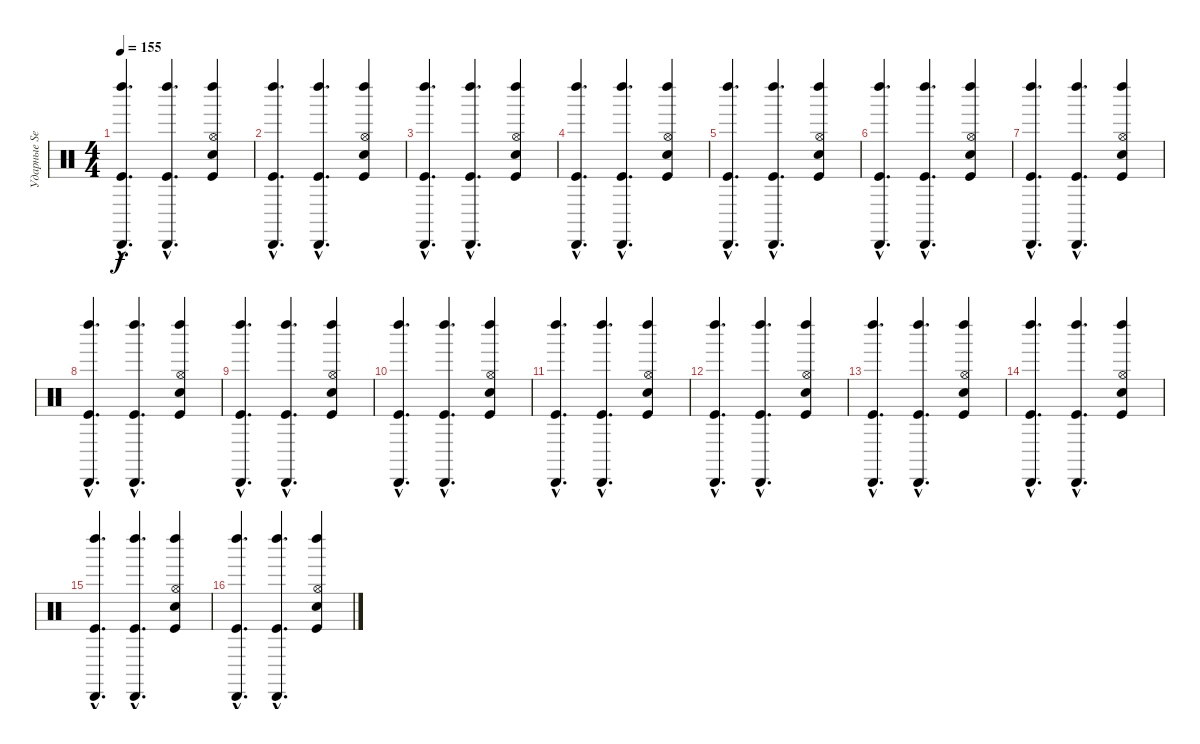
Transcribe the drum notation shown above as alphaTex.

\track ("Ударные Serge Petrone" "Ударные Se") {instrument percussion}
\staff {score}
\articulation defaults
\ts (4 4)
\tempo 155
\clef neutral
\ks c
("Cabasa (hit)"{hac} "Kick (hit)"{hac} "Left Maraca (hit)"{hac}).4{d dy f} ("Cabasa (hit)"{hac} "Kick (hit)"{hac} "Left Maraca (hit)"{hac}).4{d} ("Hi-Hat (open)" "Hand Clap (hit)" "Kick (hit)" "Left Maraca (hit)").4 |
("Cabasa (hit)"{hac} "Kick (hit)"{hac} "Left Maraca (hit)"{hac}).4{d} ("Cabasa (hit)"{hac} "Kick (hit)"{hac} "Left Maraca (hit)"{hac}).4{d} ("Hi-Hat (open)" "Hand Clap (hit)" "Kick (hit)" "Left Maraca (hit)").4 |
("Cabasa (hit)"{hac} "Kick (hit)"{hac} "Left Maraca (hit)"{hac}).4{d} ("Cabasa (hit)"{hac} "Kick (hit)"{hac} "Left Maraca (hit)"{hac}).4{d} ("Hi-Hat (open)" "Hand Clap (hit)" "Kick (hit)" "Left Maraca (hit)").4 |
("Cabasa (hit)"{hac} "Kick (hit)"{hac} "Left Maraca (hit)"{hac}).4{d} ("Cabasa (hit)"{hac} "Kick (hit)"{hac} "Left Maraca (hit)"{hac}).4{d} ("Hi-Hat (open)" "Hand Clap (hit)" "Kick (hit)" "Left Maraca (hit)").4 |
("Cabasa (hit)"{hac} "Kick (hit)"{hac} "Left Maraca (hit)"{hac}).4{d} ("Cabasa (hit)"{hac} "Kick (hit)"{hac} "Left Maraca (hit)"{hac}).4{d} ("Hi-Hat (open)" "Hand Clap (hit)" "Kick (hit)" "Left Maraca (hit)").4 |
("Cabasa (hit)"{hac} "Kick (hit)"{hac} "Left Maraca (hit)"{hac}).4{d} ("Cabasa (hit)"{hac} "Kick (hit)"{hac} "Left Maraca (hit)"{hac}).4{d} ("Hi-Hat (open)" "Hand Clap (hit)" "Kick (hit)" "Left Maraca (hit)").4 |
("Cabasa (hit)"{hac} "Kick (hit)"{hac} "Left Maraca (hit)"{hac}).4{d} ("Cabasa (hit)"{hac} "Kick (hit)"{hac} "Left Maraca (hit)"{hac}).4{d} ("Hi-Hat (open)" "Hand Clap (hit)" "Kick (hit)" "Left Maraca (hit)").4 |
("Cabasa (hit)"{hac} "Kick (hit)"{hac} "Left Maraca (hit)"{hac}).4{d} ("Cabasa (hit)"{hac} "Kick (hit)"{hac} "Left Maraca (hit)"{hac}).4{d} ("Hi-Hat (open)" "Hand Clap (hit)" "Kick (hit)" "Left Maraca (hit)").4 |
("Cabasa (hit)"{hac} "Kick (hit)"{hac} "Left Maraca (hit)"{hac}).4{d} ("Cabasa (hit)"{hac} "Kick (hit)"{hac} "Left Maraca (hit)"{hac}).4{d} ("Hi-Hat (open)" "Hand Clap (hit)" "Kick (hit)" "Left Maraca (hit)").4 |
("Cabasa (hit)"{hac} "Kick (hit)"{hac} "Left Maraca (hit)"{hac}).4{d} ("Cabasa (hit)"{hac} "Kick (hit)"{hac} "Left Maraca (hit)"{hac}).4{d} ("Hi-Hat (open)" "Hand Clap (hit)" "Kick (hit)" "Left Maraca (hit)").4 |
("Cabasa (hit)"{hac} "Kick (hit)"{hac} "Left Maraca (hit)"{hac}).4{d} ("Cabasa (hit)"{hac} "Kick (hit)"{hac} "Left Maraca (hit)"{hac}).4{d} ("Hi-Hat (open)" "Hand Clap (hit)" "Kick (hit)" "Left Maraca (hit)").4 |
("Cabasa (hit)"{hac} "Kick (hit)"{hac} "Left Maraca (hit)"{hac}).4{d} ("Cabasa (hit)"{hac} "Kick (hit)"{hac} "Left Maraca (hit)"{hac}).4{d} ("Hi-Hat (open)" "Hand Clap (hit)" "Kick (hit)" "Left Maraca (hit)").4 |
("Cabasa (hit)"{hac} "Kick (hit)"{hac} "Left Maraca (hit)"{hac}).4{d} ("Cabasa (hit)"{hac} "Kick (hit)"{hac} "Left Maraca (hit)"{hac}).4{d} ("Hi-Hat (open)" "Hand Clap (hit)" "Kick (hit)" "Left Maraca (hit)").4 |
("Cabasa (hit)"{hac} "Kick (hit)"{hac} "Left Maraca (hit)"{hac}).4{d} ("Cabasa (hit)"{hac} "Kick (hit)"{hac} "Left Maraca (hit)"{hac}).4{d} ("Hi-Hat (open)" "Hand Clap (hit)" "Kick (hit)" "Left Maraca (hit)").4 |
("Cabasa (hit)"{hac} "Kick (hit)"{hac} "Left Maraca (hit)"{hac}).4{d} ("Cabasa (hit)"{hac} "Kick (hit)"{hac} "Left Maraca (hit)"{hac}).4{d} ("Hi-Hat (open)" "Hand Clap (hit)" "Kick (hit)" "Left Maraca (hit)").4 |
("Cabasa (hit)"{hac} "Kick (hit)"{hac} "Left Maraca (hit)"{hac}).4{d} ("Cabasa (hit)"{hac} "Kick (hit)"{hac} "Left Maraca (hit)"{hac}).4{d} ("Hi-Hat (open)" "Hand Clap (hit)" "Kick (hit)" "Left Maraca (hit)").4
